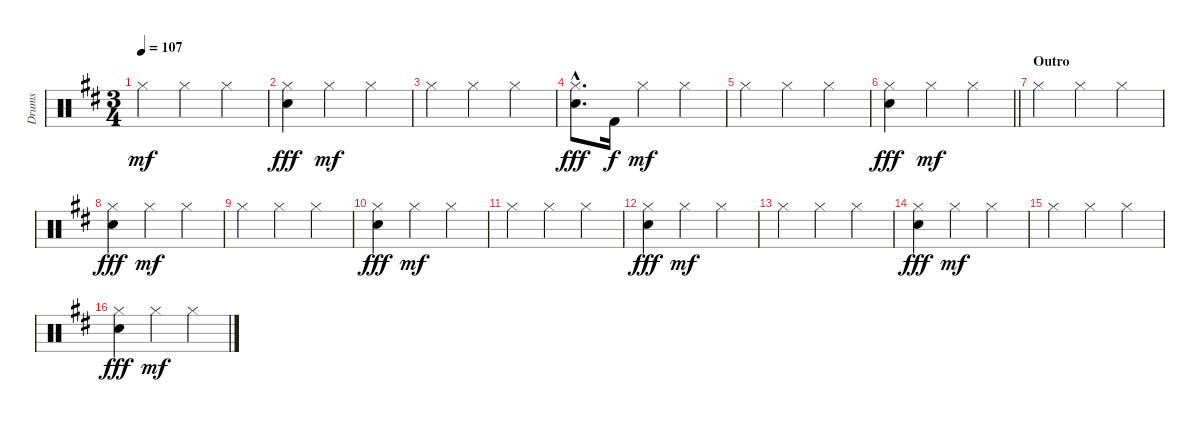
\track ("Drums" "Drums") {instrument percussion}
\staff {score}
\articulation defaults
\ts (3 4)
\tempo 107
\clef neutral
\ks d "Hi-Hat (closed)".4{dy mf} "Hi-Hat (closed)".4 "Hi-Hat (closed)".4
|
("Hi-Hat (closed)" "Electric Snare (hit)").4{dy fff} "Hi-Hat (closed)".4{dy mf} "Hi-Hat (closed)".4 |
"Hi-Hat (closed)".4 "Hi-Hat (closed)".4 "Hi-Hat (closed)".4 |
("Hi-Hat (closed)"{hac} "Electric Snare (hit)"{hac}).8{d dy fff} "Kick (hit) 2".16{dy f} "Hi-Hat (closed)".4{dy mf} "Hi-Hat (closed)".4 |
"Hi-Hat (closed)".4 "Hi-Hat (closed)".4 "Hi-Hat (closed)".4 |
\barLineRight lightlight
("Hi-Hat (closed)" "Electric Snare (hit)").4{dy fff} "Hi-Hat (closed)".4{dy mf} "Hi-Hat (closed)".4 |
\section ("" "Outro")
"Hi-Hat (closed)".4 "Hi-Hat (closed)".4 "Hi-Hat (closed)".4 |
("Hi-Hat (closed)" "Electric Snare (hit)").4{dy fff} "Hi-Hat (closed)".4{dy mf} "Hi-Hat (closed)".4 |
"Hi-Hat (closed)".4 "Hi-Hat (closed)".4 "Hi-Hat (closed)".4 |
("Hi-Hat (closed)" "Electric Snare (hit)").4{dy fff} "Hi-Hat (closed)".4{dy mf} "Hi-Hat (closed)".4 |
"Hi-Hat (closed)".4 "Hi-Hat (closed)".4 "Hi-Hat (closed)".4 |
("Hi-Hat (closed)" "Electric Snare (hit)").4{dy fff} "Hi-Hat (closed)".4{dy mf} "Hi-Hat (closed)".4 |
"Hi-Hat (closed)".4 "Hi-Hat (closed)".4 "Hi-Hat (closed)".4 |
("Hi-Hat (closed)" "Electric Snare (hit)").4{dy fff} "Hi-Hat (closed)".4{dy mf} "Hi-Hat (closed)".4 |
"Hi-Hat (closed)".4 "Hi-Hat (closed)".4 "Hi-Hat (closed)".4 |
("Hi-Hat (closed)" "Electric Snare (hit)").4{dy fff} "Hi-Hat (closed)".4{dy mf} "Hi-Hat (closed)".4
